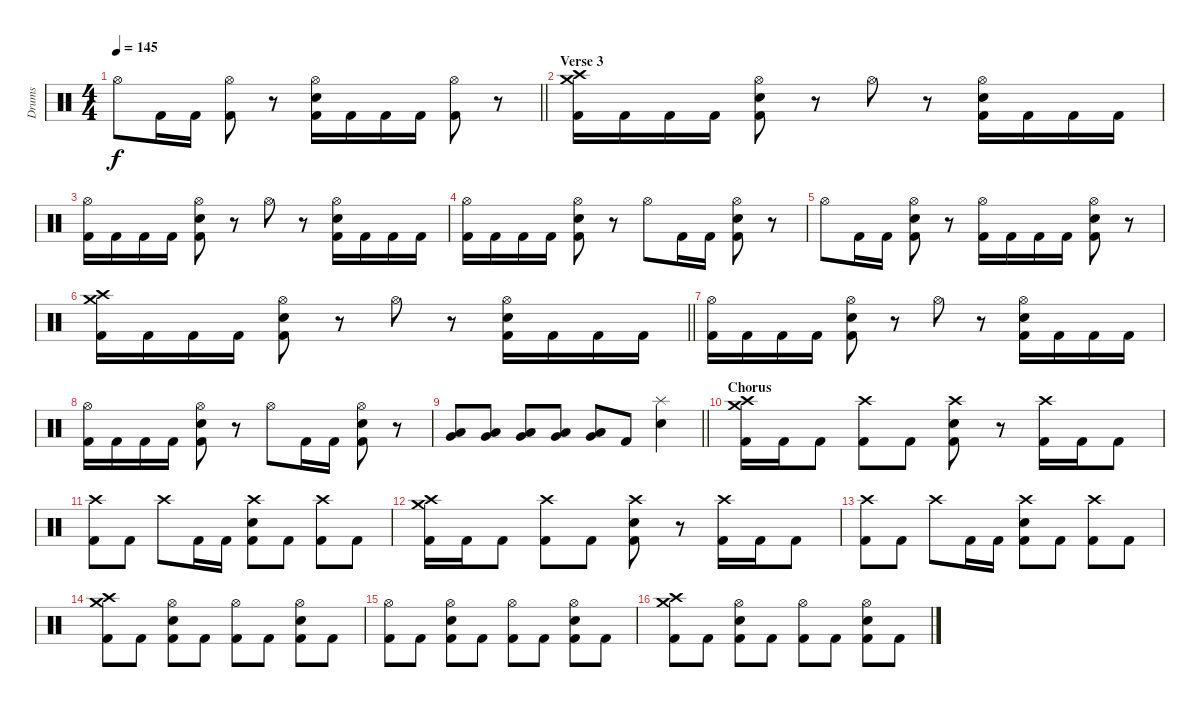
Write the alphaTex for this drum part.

\track ("Drums" "Drums") {instrument percussion}
\staff {score}
\articulation defaults
\ts (4 4)
\tempo 145
\clef neutral
\barLineRight lightlight
\ks c "Hi-Hat (open)".8{dy f} "Kick (hit) 2".16 "Kick (hit) 2".16
("Hi-Hat (open)" "Kick (hit) 2").8 r.8 ("Hi-Hat (open)" "Electric Snare (hit)" "Kick (hit) 2").16 "Kick (hit) 2".16 "Kick (hit) 2".16 "Kick (hit) 2".16 ("Hi-Hat (open)" "Kick (hit) 2").8 r.8 |
\section ("" "Verse 3")
("Crash high (hit)" "Crash medium (hit)" "Kick (hit) 2").16 "Kick (hit) 2".16 "Kick (hit) 2".16 "Kick (hit) 2".16 ("Hi-Hat (open)" "Electric Snare (hit)" "Kick (hit) 2").8 r.8 "Hi-Hat (open)".8 r.8 ("Hi-Hat (open)" "Electric Snare (hit)" "Kick (hit) 2").16 "Kick (hit) 2".16 "Kick (hit) 2".16 "Kick (hit) 2".16 |
("Hi-Hat (open)" "Kick (hit) 2").16 "Kick (hit) 2".16 "Kick (hit) 2".16 "Kick (hit) 2".16 ("Hi-Hat (open)" "Electric Snare (hit)" "Kick (hit) 2").8 r.8 "Hi-Hat (open)".8 r.8 ("Hi-Hat (open)" "Electric Snare (hit)" "Kick (hit) 2").16 "Kick (hit) 2".16 "Kick (hit) 2".16 "Kick (hit) 2".16 |
("Hi-Hat (open)" "Kick (hit) 2").16 "Kick (hit) 2".16 "Kick (hit) 2".16 "Kick (hit) 2".16 ("Hi-Hat (open)" "Electric Snare (hit)" "Kick (hit) 2").8 r.8 "Hi-Hat (open)".8 "Kick (hit) 2".16 "Kick (hit) 2".16 ("Hi-Hat (open)" "Electric Snare (hit)" "Kick (hit) 2").8 r.8 |
"Hi-Hat (open)".8 "Kick (hit) 2".16 "Kick (hit) 2".16 ("Hi-Hat (open)" "Electric Snare (hit)" "Kick (hit) 2").8 r.8 ("Hi-Hat (open)" "Kick (hit) 2").16 "Kick (hit) 2".16 "Kick (hit) 2".16 "Kick (hit) 2".16 ("Hi-Hat (open)" "Electric Snare (hit)" "Kick (hit) 2").8 r.8 |
\barLineRight lightlight
("Crash high (hit)" "Crash medium (hit)" "Kick (hit) 2").16 "Kick (hit) 2".16 "Kick (hit) 2".16 "Kick (hit) 2".16 ("Hi-Hat (open)" "Electric Snare (hit)" "Kick (hit) 2").8 r.8 "Hi-Hat (open)".8 r.8 ("Hi-Hat (open)" "Electric Snare (hit)" "Kick (hit) 2").16 "Kick (hit) 2".16 "Kick (hit) 2".16 "Kick (hit) 2".16 |
("Hi-Hat (open)" "Kick (hit) 2").16 "Kick (hit) 2".16 "Kick (hit) 2".16 "Kick (hit) 2".16 ("Hi-Hat (open)" "Electric Snare (hit)" "Kick (hit) 2").8 r.8 "Hi-Hat (open)".8 r.8 ("Hi-Hat (open)" "Electric Snare (hit)" "Kick (hit) 2").16 "Kick (hit) 2".16 "Kick (hit) 2".16 "Kick (hit) 2".16 |
("Hi-Hat (open)" "Kick (hit) 2").16 "Kick (hit) 2".16 "Kick (hit) 2".16 "Kick (hit) 2".16 ("Hi-Hat (open)" "Electric Snare (hit)" "Kick (hit) 2").8 r.8 "Hi-Hat (open)".8 "Kick (hit) 2".16 "Kick (hit) 2".16 ("Hi-Hat (open)" "Electric Snare (hit)" "Kick (hit) 2").8 r.8 |
\barLineRight lightlight
("Low Floor Tom (hit)" "Very Low Tom (hit)").8 ("Low Floor Tom (hit)" "Very Low Tom (hit)").8 ("Low Floor Tom (hit)" "Very Low Tom (hit)").8 ("Low Floor Tom (hit)" "Very Low Tom (hit)").8 ("Low Floor Tom (hit)" "Very Low Tom (hit)").8 "Kick (hit) 2".8 ("Splash (hit)" "Electric Snare (hit)").4 |
\section ("" "Chorus")
("Crash high (hit)" "Crash medium (hit)" "Kick (hit) 2").16 "Kick (hit) 2".16 "Kick (hit) 2".8 ("Crash high (hit)" "Kick (hit) 2").8 "Kick (hit) 2".8 ("Crash high (hit)" "Electric Snare (hit)" "Kick (hit) 2").8 r.8 ("Crash high (hit)" "Kick (hit) 2").16 "Kick (hit) 2".16 "Kick (hit) 2".8 |
("Crash high (hit)" "Kick (hit) 2").8 "Kick (hit) 2".8 "Crash high (hit)".8 "Kick (hit) 2".16 "Kick (hit) 2".16 ("Crash high (hit)" "Electric Snare (hit)" "Kick (hit) 2").8 "Kick (hit) 2".8 ("Crash high (hit)" "Kick (hit) 2").8 "Kick (hit) 2".8 |
("Crash high (hit)" "Crash medium (hit)" "Kick (hit) 2").16 "Kick (hit) 2".16 "Kick (hit) 2".8 ("Crash high (hit)" "Kick (hit) 2").8 "Kick (hit) 2".8 ("Crash high (hit)" "Electric Snare (hit)" "Kick (hit) 2").8 r.8 ("Crash high (hit)" "Kick (hit) 2").16 "Kick (hit) 2".16 "Kick (hit) 2".8 |
("Crash high (hit)" "Kick (hit) 2").8 "Kick (hit) 2".8 "Crash high (hit)".8 "Kick (hit) 2".16 "Kick (hit) 2".16 ("Crash high (hit)" "Electric Snare (hit)" "Kick (hit) 2").8 "Kick (hit) 2".8 ("Crash high (hit)" "Kick (hit) 2").8 "Kick (hit) 2".8 |
("Crash high (hit)" "Crash medium (hit)" "Kick (hit) 2").8 "Kick (hit) 2".8 ("Hi-Hat (open)" "Electric Snare (hit)" "Kick (hit) 2").8 "Kick (hit) 2".8 ("Hi-Hat (open)" "Kick (hit) 2").8 "Kick (hit) 2".8 ("Hi-Hat (open)" "Electric Snare (hit)" "Kick (hit) 2").8 "Kick (hit) 2".8 |
("Hi-Hat (open)" "Kick (hit) 2").8 "Kick (hit) 2".8 ("Hi-Hat (open)" "Electric Snare (hit)" "Kick (hit) 2").8 "Kick (hit) 2".8 ("Hi-Hat (open)" "Kick (hit) 2").8 "Kick (hit) 2".8 ("Hi-Hat (open)" "Electric Snare (hit)" "Kick (hit) 2").8 "Kick (hit) 2".8 |
("Crash high (hit)" "Crash medium (hit)" "Kick (hit) 2").8 "Kick (hit) 2".8 ("Hi-Hat (open)" "Electric Snare (hit)" "Kick (hit) 2").8 "Kick (hit) 2".8 ("Hi-Hat (open)" "Kick (hit) 2").8 "Kick (hit) 2".8 ("Hi-Hat (open)" "Electric Snare (hit)" "Kick (hit) 2").8 "Kick (hit) 2".8
